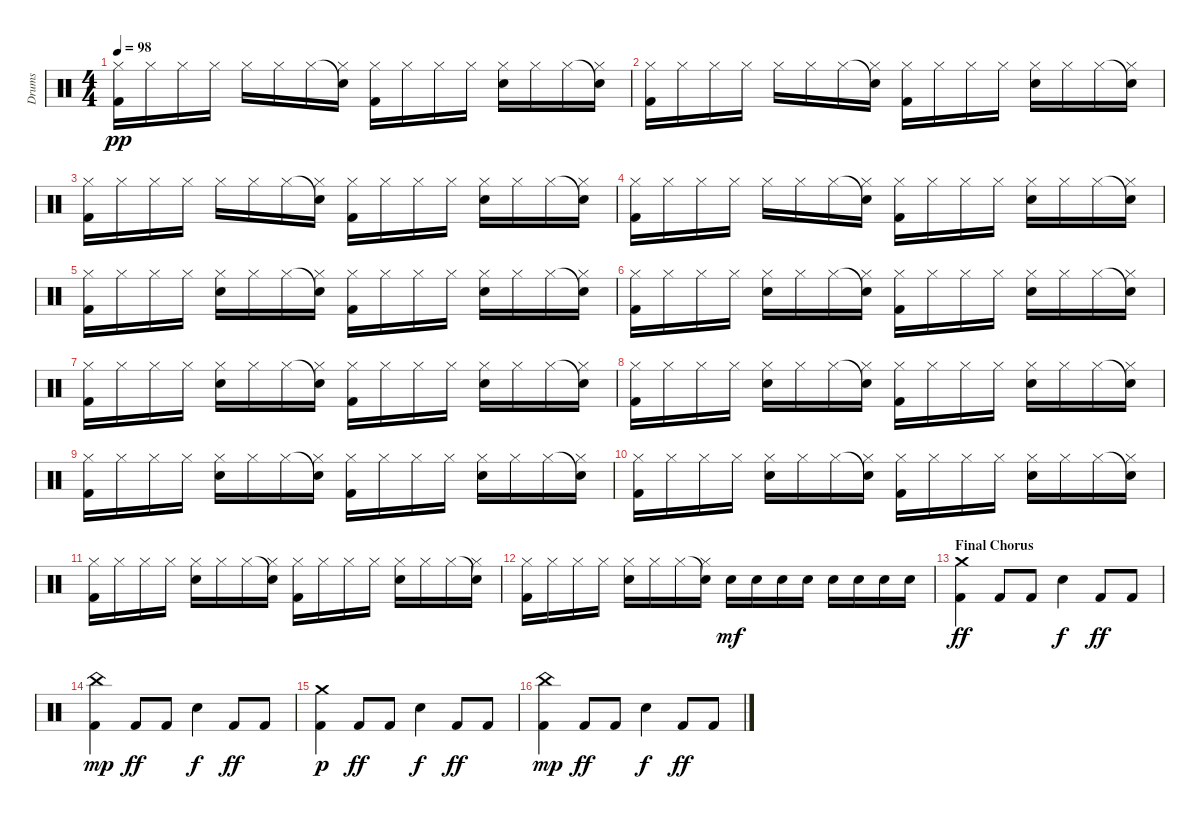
\track ("Drums" "Drums") {instrument percussion}
\staff {score}
\articulation defaults
\ts (4 4)
\tempo 98
\clef neutral
\ks c
("Kick (hit) 2" "Hi-Hat (closed)").16{dy pp} "Hi-Hat (closed)".16 "Hi-Hat (closed)".16 "Hi-Hat (closed)".16 "Hi-Hat (closed)".16 "Hi-Hat (closed)".16 "Hi-Hat (closed)".16 ("Snare (hit)"{t} "Hi-Hat (closed)").16 ("Kick (hit) 2" "Hi-Hat (closed)").16 "Hi-Hat (closed)".16 "Hi-Hat (closed)".16 "Hi-Hat (closed)".16 ("Hi-Hat (closed)" "Snare (hit) 2").16 "Hi-Hat (closed)".16 "Hi-Hat (closed)".16 ("Snare (hit)"{t} "Hi-Hat (closed)").16 |
("Kick (hit) 2" "Hi-Hat (closed)").16 "Hi-Hat (closed)".16 "Hi-Hat (closed)".16 "Hi-Hat (closed)".16 "Hi-Hat (closed)".16 "Hi-Hat (closed)".16 "Hi-Hat (closed)".16 ("Snare (hit)"{t} "Hi-Hat (closed)").16 ("Kick (hit) 2" "Hi-Hat (closed)").16 "Hi-Hat (closed)".16 "Hi-Hat (closed)".16 "Hi-Hat (closed)".16 ("Hi-Hat (closed)" "Snare (hit) 2").16 "Hi-Hat (closed)".16 "Hi-Hat (closed)".16 ("Snare (hit)"{t} "Hi-Hat (closed)").16 |
("Kick (hit) 2" "Hi-Hat (closed)").16 "Hi-Hat (closed)".16 "Hi-Hat (closed)".16 "Hi-Hat (closed)".16 "Hi-Hat (closed)".16 "Hi-Hat (closed)".16 "Hi-Hat (closed)".16 ("Snare (hit)"{t} "Hi-Hat (closed)").16 ("Kick (hit) 2" "Hi-Hat (closed)").16 "Hi-Hat (closed)".16 "Hi-Hat (closed)".16 "Hi-Hat (closed)".16 ("Hi-Hat (closed)" "Snare (hit) 2").16 "Hi-Hat (closed)".16 "Hi-Hat (closed)".16 ("Snare (hit)"{t} "Hi-Hat (closed)").16 |
("Kick (hit) 2" "Hi-Hat (closed)").16 "Hi-Hat (closed)".16 "Hi-Hat (closed)".16 "Hi-Hat (closed)".16 "Hi-Hat (closed)".16 "Hi-Hat (closed)".16 "Hi-Hat (closed)".16 ("Snare (hit)"{t} "Hi-Hat (closed)").16 ("Kick (hit) 2" "Hi-Hat (closed)").16 "Hi-Hat (closed)".16 "Hi-Hat (closed)".16 "Hi-Hat (closed)".16 ("Hi-Hat (closed)" "Snare (hit) 2").16 "Hi-Hat (closed)".16 "Hi-Hat (closed)".16 ("Snare (hit)"{t} "Hi-Hat (closed)").16 |
("Kick (hit) 2" "Hi-Hat (closed)").16 "Hi-Hat (closed)".16 "Hi-Hat (closed)".16 "Hi-Hat (closed)".16 ("Hi-Hat (closed)" "Snare (hit) 2").16 "Hi-Hat (closed)".16 "Hi-Hat (closed)".16 ("Snare (hit)"{t} "Hi-Hat (closed)").16 ("Kick (hit) 2" "Hi-Hat (closed)").16 "Hi-Hat (closed)".16 "Hi-Hat (closed)".16 "Hi-Hat (closed)".16 ("Hi-Hat (closed)" "Snare (hit) 2").16 "Hi-Hat (closed)".16 "Hi-Hat (closed)".16 ("Snare (hit)"{t} "Hi-Hat (closed)").16 |
("Kick (hit) 2" "Hi-Hat (closed)").16 "Hi-Hat (closed)".16 "Hi-Hat (closed)".16 "Hi-Hat (closed)".16 ("Hi-Hat (closed)" "Snare (hit) 2").16 "Hi-Hat (closed)".16 "Hi-Hat (closed)".16 ("Snare (hit)"{t} "Hi-Hat (closed)").16 ("Kick (hit) 2" "Hi-Hat (closed)").16 "Hi-Hat (closed)".16 "Hi-Hat (closed)".16 "Hi-Hat (closed)".16 ("Hi-Hat (closed)" "Snare (hit) 2").16 "Hi-Hat (closed)".16 "Hi-Hat (closed)".16 ("Snare (hit)"{t} "Hi-Hat (closed)").16 |
("Kick (hit) 2" "Hi-Hat (closed)").16 "Hi-Hat (closed)".16 "Hi-Hat (closed)".16 "Hi-Hat (closed)".16 ("Hi-Hat (closed)" "Snare (hit) 2").16 "Hi-Hat (closed)".16 "Hi-Hat (closed)".16 ("Snare (hit)"{t} "Hi-Hat (closed)").16 ("Kick (hit) 2" "Hi-Hat (closed)").16 "Hi-Hat (closed)".16 "Hi-Hat (closed)".16 "Hi-Hat (closed)".16 ("Hi-Hat (closed)" "Snare (hit) 2").16 "Hi-Hat (closed)".16 "Hi-Hat (closed)".16 ("Snare (hit)"{t} "Hi-Hat (closed)").16 |
("Kick (hit) 2" "Hi-Hat (closed)").16 "Hi-Hat (closed)".16 "Hi-Hat (closed)".16 "Hi-Hat (closed)".16 ("Hi-Hat (closed)" "Snare (hit) 2").16 "Hi-Hat (closed)".16 "Hi-Hat (closed)".16 ("Snare (hit)"{t} "Hi-Hat (closed)").16 ("Kick (hit) 2" "Hi-Hat (closed)").16 "Hi-Hat (closed)".16 "Hi-Hat (closed)".16 "Hi-Hat (closed)".16 ("Hi-Hat (closed)" "Snare (hit) 2").16 "Hi-Hat (closed)".16 "Hi-Hat (closed)".16 ("Snare (hit)"{t} "Hi-Hat (closed)").16 |
("Kick (hit) 2" "Hi-Hat (closed)").16 "Hi-Hat (closed)".16 "Hi-Hat (closed)".16 "Hi-Hat (closed)".16 ("Hi-Hat (closed)" "Snare (hit) 2").16 "Hi-Hat (closed)".16 "Hi-Hat (closed)".16 ("Snare (hit)"{t} "Hi-Hat (closed)").16 ("Kick (hit) 2" "Hi-Hat (closed)").16 "Hi-Hat (closed)".16 "Hi-Hat (closed)".16 "Hi-Hat (closed)".16 ("Hi-Hat (closed)" "Snare (hit) 2").16 "Hi-Hat (closed)".16 "Hi-Hat (closed)".16 ("Snare (hit)"{t} "Hi-Hat (closed)").16 |
("Kick (hit) 2" "Hi-Hat (closed)").16 "Hi-Hat (closed)".16 "Hi-Hat (closed)".16 "Hi-Hat (closed)".16 ("Hi-Hat (closed)" "Snare (hit) 2").16 "Hi-Hat (closed)".16 "Hi-Hat (closed)".16 ("Snare (hit)"{t} "Hi-Hat (closed)").16 ("Kick (hit) 2" "Hi-Hat (closed)").16 "Hi-Hat (closed)".16 "Hi-Hat (closed)".16 "Hi-Hat (closed)".16 ("Hi-Hat (closed)" "Snare (hit) 2").16 "Hi-Hat (closed)".16 "Hi-Hat (closed)".16 ("Snare (hit)"{t} "Hi-Hat (closed)").16 |
("Kick (hit) 2" "Hi-Hat (closed)").16 "Hi-Hat (closed)".16 "Hi-Hat (closed)".16 "Hi-Hat (closed)".16 ("Hi-Hat (closed)" "Snare (hit) 2").16 "Hi-Hat (closed)".16 "Hi-Hat (closed)".16 ("Snare (hit)"{t} "Hi-Hat (closed)").16 ("Kick (hit) 2" "Hi-Hat (closed)").16 "Hi-Hat (closed)".16 "Hi-Hat (closed)".16 "Hi-Hat (closed)".16 ("Hi-Hat (closed)" "Snare (hit) 2").16 "Hi-Hat (closed)".16 "Hi-Hat (closed)".16 ("Snare (hit)"{t} "Hi-Hat (closed)").16 |
("Kick (hit) 2" "Hi-Hat (closed)").16 "Hi-Hat (closed)".16 "Hi-Hat (closed)".16 "Hi-Hat (closed)".16 ("Hi-Hat (closed)" "Snare (hit) 2").16 "Hi-Hat (closed)".16 "Hi-Hat (closed)".16 ("Snare (hit)"{t} "Hi-Hat (closed)").16 "Snare (hit) 2".16{dy mf} "Snare (hit) 2".16 "Snare (hit) 2".16 "Snare (hit) 2".16 "Snare (hit) 2".16 "Snare (hit) 2".16 "Snare (hit) 2".16 "Snare (hit) 2".16 |
\section ("" "Final Chorus")
("Kick (hit) 2" "Crash medium (hit)").4{dy ff} "Kick (hit) 2".8 "Kick (hit) 2".8 "Snare (hit) 2".4{dy f} "Kick (hit) 2".8{dy ff} "Kick (hit) 2".8 |
("Kick (hit) 2" "China (hit)").4{dy mp} "Kick (hit) 2".8{dy ff} "Kick (hit) 2".8 "Snare (hit) 2".4{dy f} "Kick (hit) 2".8{dy ff} "Kick (hit) 2".8 |
("Kick (hit) 2" "Crash medium (hit)").4{dy p} "Kick (hit) 2".8{dy ff} "Kick (hit) 2".8 "Snare (hit) 2".4{dy f} "Kick (hit) 2".8{dy ff} "Kick (hit) 2".8 |
("Kick (hit) 2" "China (hit)").4{dy mp} "Kick (hit) 2".8{dy ff} "Kick (hit) 2".8 "Snare (hit) 2".4{dy f} "Kick (hit) 2".8{dy ff} "Kick (hit) 2".8
